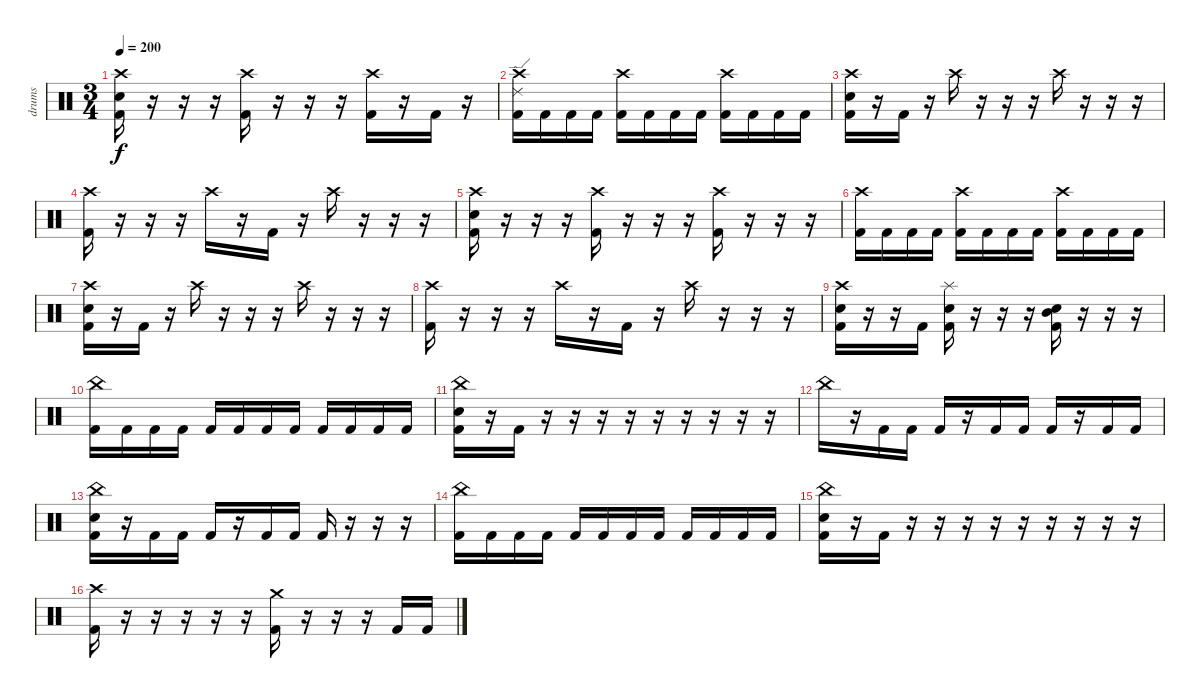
\track ("drums" "drums") {instrument percussion}
\staff {score}
\articulation defaults
\ts (3 4)
\tempo 200
\clef neutral
\ks c
("Crash high (hit)" "Electric Snare (hit)" "Kick (hit) 2").16{dy f} r.16 r.16 r.16 ("Crash high (hit)" "Kick (hit) 2").16 r.16 r.16 r.16 ("Crash high (hit)" "Kick (hit) 2").16 r.16 "Kick (hit) 2".16 r.16 |
("Crash high (hit)" "Ride (edge) 2" "Kick (hit) 2").16 "Kick (hit) 2".16 "Kick (hit) 2".16 "Kick (hit) 2".16 ("Crash high (hit)" "Kick (hit) 2").16 "Kick (hit) 2".16 "Kick (hit) 2".16 "Kick (hit) 2".16 ("Kick (hit) 2" "Crash high (hit)").16 "Kick (hit) 2".16 "Kick (hit) 2".16 "Kick (hit) 2".16 |
("Crash high (hit)" "Electric Snare (hit)" "Kick (hit) 2").16 r.16 "Kick (hit) 2".16 r.16 "Crash high (hit)".16 r.16 r.16 r.16 "Crash high (hit)".16 r.16 r.16 r.16 |
("Crash high (hit)" "Kick (hit) 2").16 r.16 r.16 r.16 "Crash high (hit)".16 r.16 "Kick (hit) 2".16 r.16 "Crash high (hit)".16 r.16 r.16 r.16 |
("Crash high (hit)" "Electric Snare (hit)" "Kick (hit) 2").16 r.16 r.16 r.16 ("Crash high (hit)" "Kick (hit) 2").16 r.16 r.16 r.16 ("Crash high (hit)" "Kick (hit) 2").16 r.16 r.16 r.16 |
("Crash high (hit)" "Kick (hit) 2").16 "Kick (hit) 2".16 "Kick (hit) 2".16 "Kick (hit) 2".16 ("Crash high (hit)" "Kick (hit) 2").16 "Kick (hit) 2".16 "Kick (hit) 2".16 "Kick (hit) 2".16 ("Kick (hit) 2" "Crash high (hit)").16 "Kick (hit) 2".16 "Kick (hit) 2".16 "Kick (hit) 2".16 |
("Crash high (hit)" "Electric Snare (hit)" "Kick (hit) 2").16 r.16 "Kick (hit) 2".16 r.16 "Crash high (hit)".16 r.16 r.16 r.16 "Crash high (hit)".16 r.16 r.16 r.16 |
("Crash high (hit)" "Kick (hit) 2").16 r.16 r.16 r.16 "Crash high (hit)".16 r.16 "Kick (hit) 2".16 r.16 "Crash high (hit)".16 r.16 r.16 r.16 |
("Crash high (hit)" "Electric Snare (hit)" "Kick (hit) 2").16 r.16 r.16 "Kick (hit) 2".16 ("Splash (hit)" "Kick (hit) 2" "Electric Snare (hit)").16 r.16 r.16 r.16 ("Mid Tom (hit)" "Kick (hit) 2" "Electric Snare (hit)").16 r.16 r.16 r.16 |
("China (hit)" "Kick (hit) 2").16 "Kick (hit) 2".16 "Kick (hit) 2".16 "Kick (hit) 2".16 "Kick (hit) 2".16 "Kick (hit) 2".16 "Kick (hit) 2".16 "Kick (hit) 2".16 "Kick (hit) 2".16 "Kick (hit) 2".16 "Kick (hit) 2".16 "Kick (hit) 2".16 |
("China (hit)" "Electric Snare (hit)" "Kick (hit) 2").16 r.16 "Kick (hit) 2".16 r.16 r.16 r.16 r.16 r.16 r.16 r.16 r.16 r.16 |
"China (hit)".16 r.16 "Kick (hit) 2".16 "Kick (hit) 2".16 "Kick (hit) 2".16 r.16 "Kick (hit) 2".16 "Kick (hit) 2".16 "Kick (hit) 2".16 r.16 "Kick (hit) 2".16 "Kick (hit) 2".16 |
("Electric Snare (hit)" "China (hit)" "Kick (hit) 2").16 r.16 "Kick (hit) 2".16 "Kick (hit) 2".16 "Kick (hit) 2".16 r.16 "Kick (hit) 2".16 "Kick (hit) 2".16 "Kick (hit) 2".16 r.16 r.16 r.16 |
("China (hit)" "Kick (hit) 2").16 "Kick (hit) 2".16 "Kick (hit) 2".16 "Kick (hit) 2".16 "Kick (hit) 2".16 "Kick (hit) 2".16 "Kick (hit) 2".16 "Kick (hit) 2".16 "Kick (hit) 2".16 "Kick (hit) 2".16 "Kick (hit) 2".16 "Kick (hit) 2".16 |
("China (hit)" "Electric Snare (hit)" "Kick (hit) 2").16 r.16 "Kick (hit) 2".16 r.16 r.16 r.16 r.16 r.16 r.16 r.16 r.16 r.16 |
("Crash high (hit)" "Kick (hit) 2").16 r.16 r.16 r.16 r.16 r.16 ("Kick (hit) 2" "Crash medium (hit)").16 r.16 r.16 r.16 "Kick (hit) 2".16 "Kick (hit) 2".16
